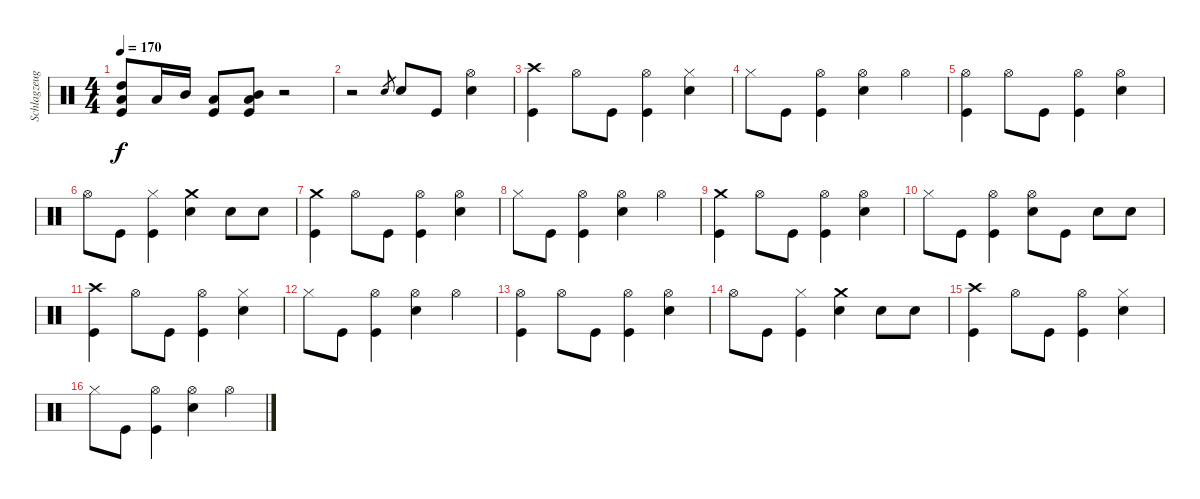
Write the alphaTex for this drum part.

\track ("Schlagzeug" "Schlagzeug") {instrument percussion}
\staff {score}
\articulation defaults
\ts (4 4)
\tempo 170
\clef neutral
\ks c
("High Tom (hit)" "Low Tom (hit)" "Kick (hit)").8{dy f} "Low Tom (hit)".16 "Mid Tom (hit)".16 ("Low Tom (hit)" "Kick (hit)").8 ("Mid Tom (hit)" "Low Tom (hit)" "Kick (hit)").8 r.2 |
r.2 "Electric Snare (hit)".8{gr} "Electric Snare (hit)".8 "Kick (hit)".8 ("Hi-Hat (open)" "Electric Snare (hit)").4 |
("Crash high (hit)" "Kick (hit)").4 "Hi-Hat (open)".8 "Kick (hit)".8 ("Hi-Hat (open)" "Kick (hit)").4 ("Hi-Hat (closed)" "Electric Snare (hit)").4 |
"Hi-Hat (closed)".8 "Kick (hit)".8 ("Hi-Hat (open)" "Kick (hit)").4 ("Hi-Hat (open)" "Electric Snare (hit)").4 "Hi-Hat (open)".4 |
("Hi-Hat (open)" "Kick (hit)").4 "Hi-Hat (open)".8 "Kick (hit)".8 ("Hi-Hat (open)" "Kick (hit)").4 ("Hi-Hat (open)" "Electric Snare (hit)").4 |
"Hi-Hat (open)".8 "Kick (hit)".8 ("Hi-Hat (closed)" "Kick (hit)").4 ("Crash medium (hit)" "Electric Snare (hit)").4 "Electric Snare (hit)".8 "Electric Snare (hit)".8 |
("Crash medium (hit)" "Kick (hit)").4 "Hi-Hat (open)".8 "Kick (hit)".8 ("Hi-Hat (open)" "Kick (hit)").4 ("Hi-Hat (open)" "Electric Snare (hit)").4 |
"Hi-Hat (closed)".8 "Kick (hit)".8 ("Hi-Hat (open)" "Kick (hit)").4 ("Hi-Hat (open)" "Electric Snare (hit)").4 "Hi-Hat (open)".4 |
("Crash medium (hit)" "Kick (hit)").4 "Hi-Hat (open)".8 "Kick (hit)".8 ("Hi-Hat (open)" "Kick (hit)").4 ("Hi-Hat (open)" "Electric Snare (hit)").4 |
"Hi-Hat (closed)".8 "Kick (hit)".8 ("Hi-Hat (open)" "Kick (hit)").4 ("Hi-Hat (open)" "Electric Snare (hit)").8 "Kick (hit)".8 "Electric Snare (hit)".8 "Electric Snare (hit)".8 |
("Crash high (hit)" "Kick (hit)").4 "Hi-Hat (open)".8 "Kick (hit)".8 ("Hi-Hat (open)" "Kick (hit)").4 ("Hi-Hat (closed)" "Electric Snare (hit)").4 |
"Hi-Hat (closed)".8 "Kick (hit)".8 ("Hi-Hat (open)" "Kick (hit)").4 ("Hi-Hat (open)" "Electric Snare (hit)").4 "Hi-Hat (open)".4 |
("Hi-Hat (open)" "Kick (hit)").4 "Hi-Hat (open)".8 "Kick (hit)".8 ("Hi-Hat (open)" "Kick (hit)").4 ("Hi-Hat (open)" "Electric Snare (hit)").4 |
"Hi-Hat (open)".8 "Kick (hit)".8 ("Hi-Hat (closed)" "Kick (hit)").4 ("Crash medium (hit)" "Electric Snare (hit)").4 "Electric Snare (hit)".8 "Electric Snare (hit)".8 |
("Crash high (hit)" "Kick (hit)").4 "Hi-Hat (open)".8 "Kick (hit)".8 ("Hi-Hat (open)" "Kick (hit)").4 ("Hi-Hat (closed)" "Electric Snare (hit)").4 |
"Hi-Hat (closed)".8 "Kick (hit)".8 ("Hi-Hat (open)" "Kick (hit)").4 ("Hi-Hat (open)" "Electric Snare (hit)").4 "Hi-Hat (open)".4
